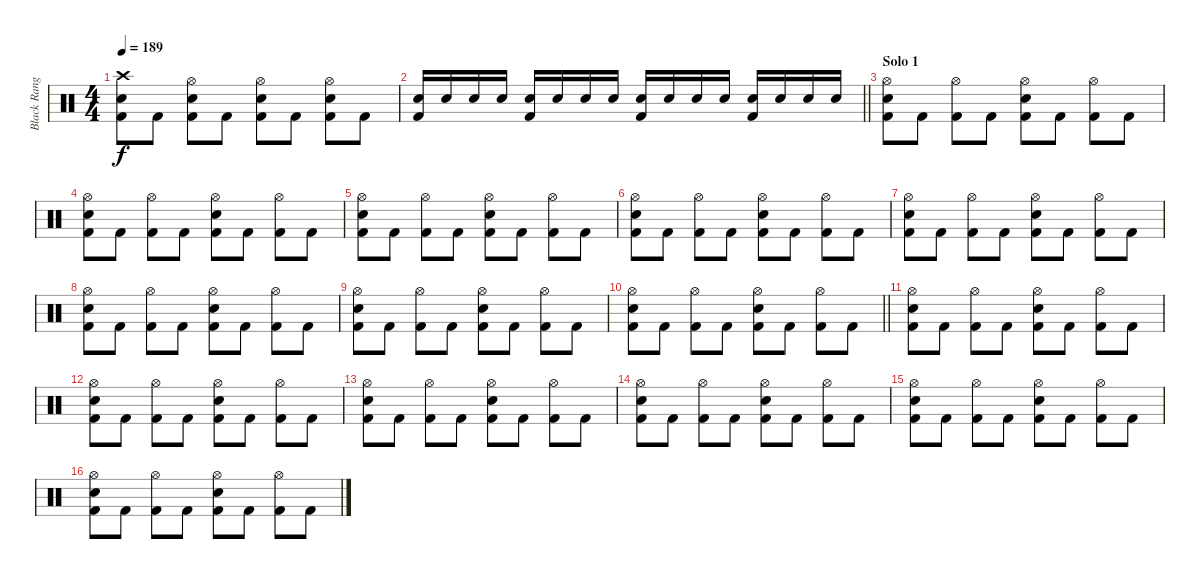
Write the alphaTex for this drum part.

\track ("Black Ranger (Drums)" "Black Rang") {instrument percussion}
\staff {score}
\articulation defaults
\ts (4 4)
\tempo 189
\clef neutral
\ks c
("Kick (hit) 2" "Snare (hit) 2" "Crash high (hit)").8{dy f} "Kick (hit) 2".8 ("Kick (hit) 2" "Snare (hit) 2" "Hi-Hat (open)").8 "Kick (hit) 2".8 ("Kick (hit) 2" "Snare (hit) 2" "Hi-Hat (open)").8 "Kick (hit) 2".8 ("Kick (hit) 2" "Snare (hit) 2" "Hi-Hat (open)").8 "Kick (hit) 2".8 |
\barLineRight lightlight
("Snare (hit) 2" "Kick (hit) 2").16 "Snare (hit) 2".16 "Snare (hit) 2".16 "Snare (hit) 2".16 ("Snare (hit) 2" "Kick (hit) 2").16 "Snare (hit) 2".16 "Snare (hit) 2".16 "Snare (hit) 2".16 ("Snare (hit) 2" "Kick (hit) 2").16 "Snare (hit) 2".16 "Snare (hit) 2".16 "Snare (hit) 2".16 ("Snare (hit) 2" "Kick (hit) 2").16 "Snare (hit) 2".16 "Snare (hit) 2".16 "Snare (hit) 2".16 |
\section ("" "Solo 1")
("Kick (hit) 2" "Snare (hit) 2" "Hi-Hat (open)").8 "Kick (hit) 2".8 ("Kick (hit) 2" "Hi-Hat (open)").8 "Kick (hit) 2".8 ("Kick (hit) 2" "Snare (hit) 2" "Hi-Hat (open)").8 "Kick (hit) 2".8 ("Kick (hit) 2" "Hi-Hat (open)").8 "Kick (hit) 2".8 |
("Kick (hit) 2" "Snare (hit) 2" "Hi-Hat (open)").8 "Kick (hit) 2".8 ("Kick (hit) 2" "Hi-Hat (open)").8 "Kick (hit) 2".8 ("Kick (hit) 2" "Snare (hit) 2" "Hi-Hat (open)").8 "Kick (hit) 2".8 ("Kick (hit) 2" "Hi-Hat (open)").8 "Kick (hit) 2".8 |
("Kick (hit) 2" "Snare (hit) 2" "Hi-Hat (open)").8 "Kick (hit) 2".8 ("Kick (hit) 2" "Hi-Hat (open)").8 "Kick (hit) 2".8 ("Kick (hit) 2" "Snare (hit) 2" "Hi-Hat (open)").8 "Kick (hit) 2".8 ("Kick (hit) 2" "Hi-Hat (open)").8 "Kick (hit) 2".8 |
("Kick (hit) 2" "Snare (hit) 2" "Hi-Hat (open)").8 "Kick (hit) 2".8 ("Kick (hit) 2" "Hi-Hat (open)").8 "Kick (hit) 2".8 ("Kick (hit) 2" "Snare (hit) 2" "Hi-Hat (open)").8 "Kick (hit) 2".8 ("Kick (hit) 2" "Hi-Hat (open)").8 "Kick (hit) 2".8 |
("Kick (hit) 2" "Snare (hit) 2" "Hi-Hat (open)").8 "Kick (hit) 2".8 ("Kick (hit) 2" "Hi-Hat (open)").8 "Kick (hit) 2".8 ("Kick (hit) 2" "Snare (hit) 2" "Hi-Hat (open)").8 "Kick (hit) 2".8 ("Kick (hit) 2" "Hi-Hat (open)").8 "Kick (hit) 2".8 |
("Kick (hit) 2" "Snare (hit) 2" "Hi-Hat (open)").8 "Kick (hit) 2".8 ("Kick (hit) 2" "Hi-Hat (open)").8 "Kick (hit) 2".8 ("Kick (hit) 2" "Snare (hit) 2" "Hi-Hat (open)").8 "Kick (hit) 2".8 ("Kick (hit) 2" "Hi-Hat (open)").8 "Kick (hit) 2".8 |
("Kick (hit) 2" "Snare (hit) 2" "Hi-Hat (open)").8 "Kick (hit) 2".8 ("Kick (hit) 2" "Hi-Hat (open)").8 "Kick (hit) 2".8 ("Kick (hit) 2" "Snare (hit) 2" "Hi-Hat (open)").8 "Kick (hit) 2".8 ("Kick (hit) 2" "Hi-Hat (open)").8 "Kick (hit) 2".8 |
\barLineRight lightlight
("Kick (hit) 2" "Snare (hit) 2" "Hi-Hat (open)").8 "Kick (hit) 2".8 ("Kick (hit) 2" "Hi-Hat (open)").8 "Kick (hit) 2".8 ("Kick (hit) 2" "Snare (hit) 2" "Hi-Hat (open)").8 "Kick (hit) 2".8 ("Kick (hit) 2" "Hi-Hat (open)").8 "Kick (hit) 2".8 |
\section ("" "")
("Kick (hit) 2" "Snare (hit) 2" "Hi-Hat (open)").8 "Kick (hit) 2".8 ("Kick (hit) 2" "Hi-Hat (open)").8 "Kick (hit) 2".8 ("Kick (hit) 2" "Snare (hit) 2" "Hi-Hat (open)").8 "Kick (hit) 2".8 ("Kick (hit) 2" "Hi-Hat (open)").8 "Kick (hit) 2".8 |
("Kick (hit) 2" "Snare (hit) 2" "Hi-Hat (open)").8 "Kick (hit) 2".8 ("Kick (hit) 2" "Hi-Hat (open)").8 "Kick (hit) 2".8 ("Kick (hit) 2" "Snare (hit) 2" "Hi-Hat (open)").8 "Kick (hit) 2".8 ("Kick (hit) 2" "Hi-Hat (open)").8 "Kick (hit) 2".8 |
("Kick (hit) 2" "Snare (hit) 2" "Hi-Hat (open)").8 "Kick (hit) 2".8 ("Kick (hit) 2" "Hi-Hat (open)").8 "Kick (hit) 2".8 ("Kick (hit) 2" "Snare (hit) 2" "Hi-Hat (open)").8 "Kick (hit) 2".8 ("Kick (hit) 2" "Hi-Hat (open)").8 "Kick (hit) 2".8 |
("Kick (hit) 2" "Snare (hit) 2" "Hi-Hat (open)").8 "Kick (hit) 2".8 ("Kick (hit) 2" "Hi-Hat (open)").8 "Kick (hit) 2".8 ("Kick (hit) 2" "Snare (hit) 2" "Hi-Hat (open)").8 "Kick (hit) 2".8 ("Kick (hit) 2" "Hi-Hat (open)").8 "Kick (hit) 2".8 |
("Kick (hit) 2" "Snare (hit) 2" "Hi-Hat (open)").8 "Kick (hit) 2".8 ("Kick (hit) 2" "Hi-Hat (open)").8 "Kick (hit) 2".8 ("Kick (hit) 2" "Snare (hit) 2" "Hi-Hat (open)").8 "Kick (hit) 2".8 ("Kick (hit) 2" "Hi-Hat (open)").8 "Kick (hit) 2".8 |
("Kick (hit) 2" "Snare (hit) 2" "Hi-Hat (open)").8 "Kick (hit) 2".8 ("Kick (hit) 2" "Hi-Hat (open)").8 "Kick (hit) 2".8 ("Kick (hit) 2" "Snare (hit) 2" "Hi-Hat (open)").8 "Kick (hit) 2".8 ("Kick (hit) 2" "Hi-Hat (open)").8 "Kick (hit) 2".8
